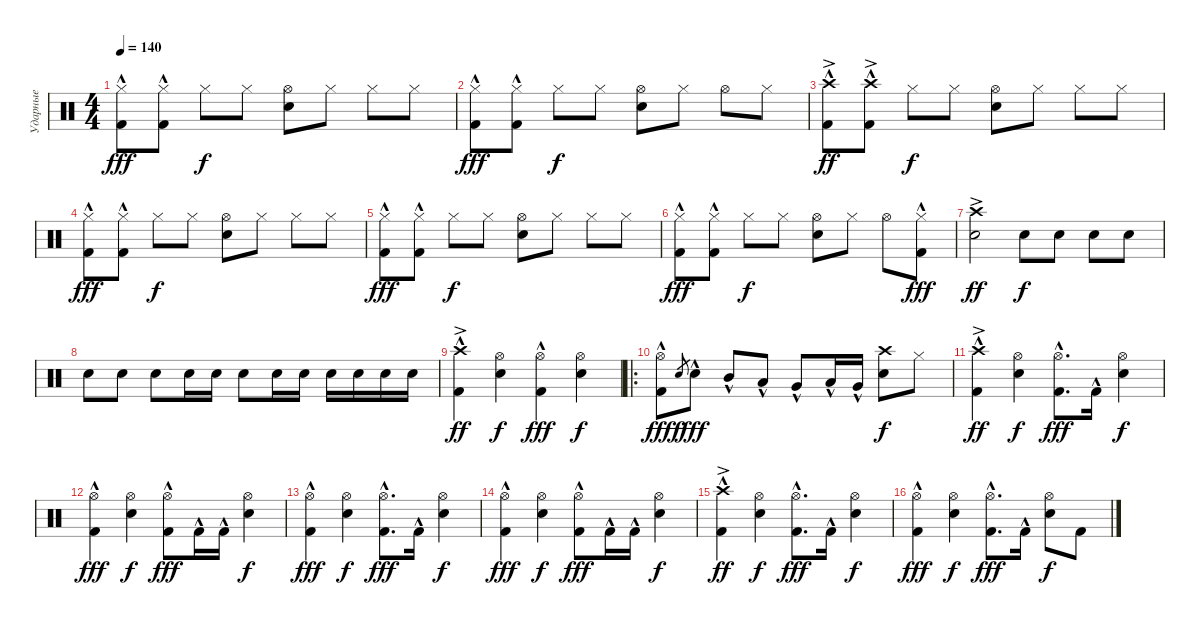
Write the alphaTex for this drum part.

\track ("Ударные" "Ударные") {instrument percussion}
\staff {score}
\articulation defaults
\ts (4 4)
\tempo 140
\clef neutral
\ks c
("Kick (hit) 2"{hac} "Hi-Hat (closed)").8{dy fff} ("Kick (hit) 2"{hac} "Hi-Hat (closed)").8 "Hi-Hat (closed)".8{dy f} "Hi-Hat (closed)".8 ("Snare (hit) 2" "Hi-Hat (open)").8 "Hi-Hat (closed)".8 "Hi-Hat (closed)".8 "Hi-Hat (closed)".8 |
("Kick (hit) 2"{hac} "Hi-Hat (closed)").8{dy fff} ("Kick (hit) 2"{hac} "Hi-Hat (closed)").8 "Hi-Hat (closed)".8{dy f} "Hi-Hat (closed)".8 ("Snare (hit) 2" "Hi-Hat (open)").8 "Hi-Hat (closed)".8 "Hi-Hat (open)".8 "Hi-Hat (closed)".8 |
("Kick (hit) 2"{hac} "Crash high (hit)"{ac}).8{dy ff} ("Kick (hit) 2"{hac} "Crash high (hit)"{ac}).8 "Hi-Hat (closed)".8{dy f} "Hi-Hat (closed)".8 ("Snare (hit) 2" "Hi-Hat (open)").8 "Hi-Hat (closed)".8 "Hi-Hat (closed)".8 "Hi-Hat (closed)".8 |
("Kick (hit) 2"{hac} "Hi-Hat (closed)").8{dy fff} ("Kick (hit) 2"{hac} "Hi-Hat (closed)").8 "Hi-Hat (closed)".8{dy f} "Hi-Hat (closed)".8 ("Snare (hit) 2" "Hi-Hat (open)").8 "Hi-Hat (closed)".8 "Hi-Hat (closed)".8 "Hi-Hat (closed)".8 |
("Kick (hit) 2"{hac} "Hi-Hat (closed)").8{dy fff} ("Kick (hit) 2"{hac} "Hi-Hat (closed)").8 "Hi-Hat (closed)".8{dy f} "Hi-Hat (closed)".8 ("Snare (hit) 2" "Hi-Hat (open)").8 "Hi-Hat (closed)".8 "Hi-Hat (closed)".8 "Hi-Hat (closed)".8 |
("Kick (hit) 2"{hac} "Hi-Hat (closed)").8{dy fff} ("Kick (hit) 2"{hac} "Hi-Hat (closed)").8 "Hi-Hat (closed)".8{dy f} "Hi-Hat (closed)".8 ("Snare (hit) 2" "Hi-Hat (open)").8 "Hi-Hat (closed)".8 "Hi-Hat (open)".8 ("Kick (hit) 2"{hac} "Hi-Hat (closed)").8{dy fff} |
("Snare (hit) 2" "Crash high (hit)"{ac}).2{dy ff} "Snare (hit) 2".8{dy f} "Snare (hit) 2".8 "Snare (hit) 2".8 "Snare (hit) 2".8 |
"Snare (hit) 2".8 "Snare (hit) 2".8 "Snare (hit) 2".8 "Snare (hit) 2".16 "Snare (hit) 2".16 "Snare (hit) 2".8 "Snare (hit) 2".16 "Snare (hit) 2".16 "Snare (hit) 2".16 "Snare (hit) 2".16 "Snare (hit) 2".16 "Snare (hit) 2".16 |
("Kick (hit) 2"{hac} "Crash high (hit)"{ac}).4{dy ff} ("Snare (hit) 2" "Hi-Hat (open)").4{dy f} ("Kick (hit) 2"{hac} "Hi-Hat (open)").4{dy fff} ("Snare (hit) 2" "Hi-Hat (open)").4{dy f} |
\ro
("Kick (hit) 2"{hac} "Hi-Hat (open)").8{dy fff} "Electric Snare (hit)".8{gr dy f} "Electric Snare (hit)"{hac}.8{dy fff} "Mid Tom (hit)"{hac}.8 "Low Tom (hit)"{hac}.8 "Very Low Tom (hit)"{hac}.8 "Low Tom (hit)"{hac}.16 "Very Low Tom (hit)"{hac}.16 ("Snare (hit) 2" "Crash high (hit)").8{dy f} "Hi-Hat (closed)".8 |
("Kick (hit) 2"{hac} "Crash high (hit)"{ac}).4{dy ff} ("Snare (hit) 2" "Hi-Hat (open)").4{dy f} ("Kick (hit) 2"{hac} "Hi-Hat (open)").8{d dy fff} "Kick (hit) 2"{hac}.16 ("Snare (hit) 2" "Hi-Hat (open)").4{dy f} |
("Kick (hit) 2"{hac} "Hi-Hat (open)").4{dy fff} ("Snare (hit) 2" "Hi-Hat (open)").4{dy f} ("Kick (hit) 2"{hac} "Hi-Hat (open)").8{dy fff} "Kick (hit) 2"{hac}.16 "Kick (hit) 2"{hac}.16 ("Snare (hit) 2" "Hi-Hat (open)").4{dy f} |
("Kick (hit) 2"{hac} "Hi-Hat (open)").4{dy fff} ("Snare (hit) 2" "Hi-Hat (open)").4{dy f} ("Kick (hit) 2"{hac} "Hi-Hat (open)").8{d dy fff} "Kick (hit) 2"{hac}.16 ("Snare (hit) 2" "Hi-Hat (open)").4{dy f} |
("Kick (hit) 2"{hac} "Hi-Hat (open)").4{dy fff} ("Snare (hit) 2" "Hi-Hat (open)").4{dy f} ("Kick (hit) 2"{hac} "Hi-Hat (open)").8{dy fff} "Kick (hit) 2"{hac}.16 "Kick (hit) 2"{hac}.16 ("Snare (hit) 2" "Hi-Hat (open)").4{dy f} |
("Kick (hit) 2"{hac} "Crash high (hit)"{ac}).4{dy ff} ("Snare (hit) 2" "Hi-Hat (open)").4{dy f} ("Kick (hit) 2"{hac} "Hi-Hat (open)").8{d dy fff} "Kick (hit) 2"{hac}.16 ("Snare (hit) 2" "Hi-Hat (open)").4{dy f} |
("Kick (hit) 2"{hac} "Hi-Hat (open)").4{dy fff} ("Snare (hit) 2" "Hi-Hat (open)").4{dy f} ("Kick (hit) 2"{hac} "Hi-Hat (open)").8{d dy fff} "Kick (hit) 2"{hac}.16 ("Snare (hit) 2" "Hi-Hat (open)").8{dy f} "Kick (hit) 2".8
